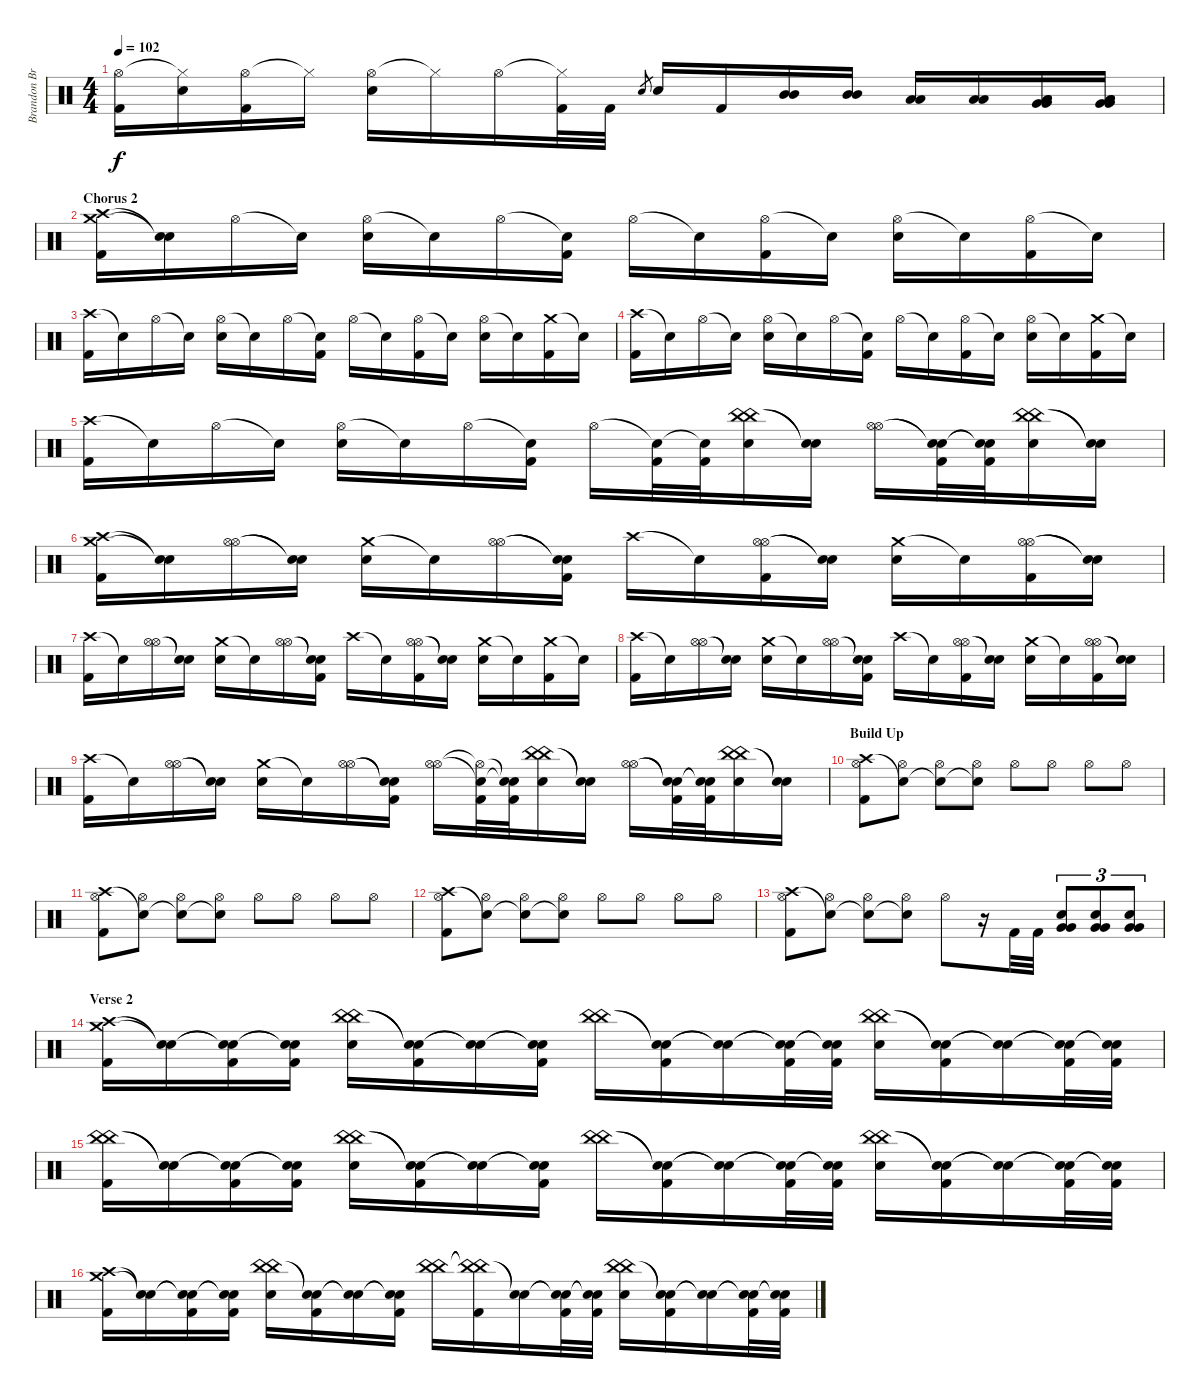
\track ("Brandon Brown (Drums)" "Brandon Br") {instrument percussion}
\staff {score}
\articulation defaults
\ts (4 4)
\tempo 102
\clef neutral
\ks c
("Hi-Hat (open)" "Kick (hit) 2").16{dy f} ("Hi-Hat (closed)"{t} "Electric Snare (hit)").16 ("Hi-Hat (open)" "Kick (hit) 2").16 "Hi-Hat (closed)"{t}.16 ("Hi-Hat (open)" "Electric Snare (hit)").16 "Hi-Hat (closed)"{t}.16 "Hi-Hat (open)".16 ("Hi-Hat (closed)"{t} "Kick (hit) 2").32 "Kick (hit) 2".32 "Electric Snare (hit)".8{gr} "Electric Snare (hit)".16 "Kick (hit) 2".16 ("Mid Tom (hit)" "Mid Tom (hit)").16 ("Mid Tom (hit)" "Mid Tom (hit)").16 ("Low Tom (hit)" "Low Tom (hit)").16 ("Low Tom (hit)" "Low Tom (hit)").16 ("Very Low Tom (hit)" "Very Low Tom (hit)" "Low Floor Tom (hit)" "Low Floor Tom (hit)").16 ("Very Low Tom (hit)" "Very Low Tom (hit)" "Low Floor Tom (hit)" "Low Floor Tom (hit)").16 |
\section ("" "Chorus 2")
("Crash high (hit)" "Crash medium (hit)" "Kick (hit) 2").16 ("Snare (hit)"{t} "Snare (hit)"{t}).16 "Hi-Hat (open)".16 "Snare (hit)"{t}.16 ("Hi-Hat (open)" "Electric Snare (hit)").16 "Snare (hit)"{t}.16 "Hi-Hat (open)".16 ("Snare (hit)"{t} "Kick (hit) 2").16 "Hi-Hat (open)".16 "Snare (hit)"{t}.16 ("Hi-Hat (open)" "Kick (hit) 2").16 "Snare (hit)"{t}.16 ("Hi-Hat (open)" "Electric Snare (hit)").16 "Snare (hit)"{t}.16 ("Hi-Hat (open)" "Kick (hit) 2").16 "Snare (hit)"{t}.16 |
("Crash high (hit)" "Kick (hit) 2").16 "Snare (hit)"{t}.16 "Hi-Hat (open)".16 "Snare (hit)"{t}.16 ("Hi-Hat (open)" "Electric Snare (hit)").16 "Snare (hit)"{t}.16 "Hi-Hat (open)".16 ("Snare (hit)"{t} "Kick (hit) 2").16 "Hi-Hat (open)".16 "Snare (hit)"{t}.16 ("Hi-Hat (open)" "Kick (hit) 2").16 "Snare (hit)"{t}.16 ("Hi-Hat (open)" "Electric Snare (hit)").16 "Snare (hit)"{t}.16 ("Crash medium (hit)" "Kick (hit) 2").16 "Snare (hit)"{t}.16 |
("Crash high (hit)" "Kick (hit) 2").16 "Snare (hit)"{t}.16 "Hi-Hat (open)".16 "Snare (hit)"{t}.16 ("Hi-Hat (open)" "Electric Snare (hit)").16 "Snare (hit)"{t}.16 "Hi-Hat (open)".16 ("Snare (hit)"{t} "Kick (hit) 2").16 "Hi-Hat (open)".16 "Snare (hit)"{t}.16 ("Hi-Hat (open)" "Kick (hit) 2").16 "Snare (hit)"{t}.16 ("Hi-Hat (open)" "Electric Snare (hit)").16 "Snare (hit)"{t}.16 ("Crash medium (hit)" "Kick (hit) 2").16 "Snare (hit)"{t}.16 |
("Crash high (hit)" "Kick (hit) 2").16 "Snare (hit)"{t}.16 "Hi-Hat (open)".16 "Snare (hit)"{t}.16 ("Hi-Hat (open)" "Electric Snare (hit)").16 "Snare (hit)"{t}.16 "Hi-Hat (open)".16 ("Snare (hit)"{t} "Kick (hit) 2").16 "Hi-Hat (open)".16 ("Snare (hit)"{t} "Kick (hit) 2").32 ("Snare (hit)"{t} "Kick (hit) 2").32 ("China (hit)" "China (hit)" "Electric Snare (hit)").16 ("Snare (hit)"{t} "Snare (hit)"{t}).16 ("Hi-Hat (open)" "Hi-Hat (open)").16 ("Snare (hit)"{t} "Snare (hit)"{t} "Kick (hit) 2").32 ("Snare (hit)"{t} "Snare (hit)"{t} "Kick (hit) 2").32 ("China (hit)" "China (hit)" "Electric Snare (hit)").16 ("Snare (hit)"{t} "Snare (hit)"{t}).16 |
("Crash high (hit)" "Crash medium (hit)" "Kick (hit) 2").16 ("Snare (hit)"{t} "Snare (hit)"{t}).16 ("Hi-Hat (open)" "Hi-Hat (open)").16 ("Snare (hit)"{t} "Snare (hit)"{t}).16 ("Crash medium (hit)" "Electric Snare (hit)").16 "Snare (hit)"{t}.16 ("Hi-Hat (open)" "Hi-Hat (open)").16 ("Snare (hit)"{t} "Snare (hit)"{t} "Kick (hit) 2").16 "Crash high (hit)".16 "Snare (hit)"{t}.16 ("Hi-Hat (open)" "Hi-Hat (open)" "Kick (hit) 2").16 ("Snare (hit)"{t} "Snare (hit)"{t}).16 ("Crash medium (hit)" "Electric Snare (hit)").16 "Snare (hit)"{t}.16 ("Hi-Hat (open)" "Hi-Hat (open)" "Kick (hit) 2").16 ("Snare (hit)"{t} "Snare (hit)"{t}).16 |
("Crash high (hit)" "Kick (hit) 2").16 "Snare (hit)"{t}.16 ("Hi-Hat (open)" "Hi-Hat (open)").16 ("Snare (hit)"{t} "Snare (hit)"{t}).16 ("Crash medium (hit)" "Electric Snare (hit)").16 "Snare (hit)"{t}.16 ("Hi-Hat (open)" "Hi-Hat (open)").16 ("Snare (hit)"{t} "Snare (hit)"{t} "Kick (hit) 2").16 "Crash high (hit)".16 "Snare (hit)"{t}.16 ("Hi-Hat (open)" "Hi-Hat (open)" "Kick (hit) 2").16 ("Snare (hit)"{t} "Snare (hit)"{t}).16 ("Crash medium (hit)" "Electric Snare (hit)").16 "Snare (hit)"{t}.16 ("Crash medium (hit)" "Kick (hit) 2").16 "Snare (hit)"{t}.16 |
("Crash high (hit)" "Kick (hit) 2").16 "Snare (hit)"{t}.16 ("Hi-Hat (open)" "Hi-Hat (open)").16 ("Snare (hit)"{t} "Snare (hit)"{t}).16 ("Crash medium (hit)" "Electric Snare (hit)").16 "Snare (hit)"{t}.16 ("Hi-Hat (open)" "Hi-Hat (open)").16 ("Snare (hit)"{t} "Snare (hit)"{t} "Kick (hit) 2").16 "Crash high (hit)".16 "Snare (hit)"{t}.16 ("Hi-Hat (open)" "Hi-Hat (open)" "Kick (hit) 2").16 ("Snare (hit)"{t} "Snare (hit)"{t}).16 ("Crash medium (hit)" "Electric Snare (hit)").16 "Snare (hit)"{t}.16 ("Hi-Hat (open)" "Hi-Hat (open)" "Kick (hit) 2").16 ("Snare (hit)"{t} "Snare (hit)"{t}).16 |
("Crash high (hit)" "Kick (hit) 2").16 "Snare (hit)"{t}.16 ("Hi-Hat (open)" "Hi-Hat (open)").16 ("Snare (hit)"{t} "Snare (hit)"{t}).16 ("Crash medium (hit)" "Electric Snare (hit)").16 "Snare (hit)"{t}.16 ("Hi-Hat (open)" "Hi-Hat (open)").16 ("Snare (hit)"{t} "Snare (hit)"{t} "Kick (hit) 2").16 ("Hi-Hat (open)" "Hi-Hat (open)").16 ("Hi-Hat (open)"{t} "Snare (hit)"{t} "Kick (hit) 2").32 ("Snare (hit)"{t} "Snare (hit)"{t} "Kick (hit) 2").32 ("China (hit)" "China (hit)" "Electric Snare (hit)").16 ("Snare (hit)"{t} "Snare (hit)"{t}).16 ("Hi-Hat (open)" "Hi-Hat (open)").16 ("Snare (hit)"{t} "Snare (hit)"{t} "Kick (hit) 2").32 ("Snare (hit)"{t} "Snare (hit)"{t} "Kick (hit) 2").32 ("China (hit)" "China (hit)" "Electric Snare (hit)").16 ("Snare (hit)"{t} "Snare (hit)"{t}).16 |
\section ("" "Build Up")
("Hi-Hat (open)" "Crash high (hit)" "Kick (hit) 2").8 ("Hi-Hat (open)" "Snare (hit)"{t}).8 ("Hi-Hat (open)" "Snare (hit)"{t}).8 ("Hi-Hat (open)" "Snare (hit)"{t}).8 "Hi-Hat (open)".8 "Hi-Hat (open)".8 "Hi-Hat (open)".8 "Hi-Hat (open)".8 |
("Hi-Hat (open)" "Crash high (hit)" "Kick (hit) 2").8 ("Hi-Hat (open)" "Snare (hit)"{t}).8 ("Hi-Hat (open)" "Snare (hit)"{t}).8 ("Hi-Hat (open)" "Snare (hit)"{t}).8 "Hi-Hat (open)".8 "Hi-Hat (open)".8 "Hi-Hat (open)".8 "Hi-Hat (open)".8 |
("Hi-Hat (open)" "Crash high (hit)" "Kick (hit) 2").8 ("Hi-Hat (open)" "Snare (hit)"{t}).8 ("Hi-Hat (open)" "Snare (hit)"{t}).8 ("Hi-Hat (open)" "Snare (hit)"{t}).8 "Hi-Hat (open)".8 "Hi-Hat (open)".8 "Hi-Hat (open)".8 "Hi-Hat (open)".8 |
("Hi-Hat (open)" "Crash high (hit)" "Kick (hit) 2").8 ("Hi-Hat (open)" "Snare (hit)"{t}).8 ("Hi-Hat (open)" "Snare (hit)"{t}).8 ("Hi-Hat (open)" "Snare (hit)"{t}).8 "Hi-Hat (open)".8 r.16 "Kick (hit) 2".32 "Kick (hit) 2".32 ("Electric Snare (hit)" "Very Low Tom (hit)" "Very Low Tom (hit)").8{tu (3 2)} ("Electric Snare (hit)" "Very Low Tom (hit)" "Very Low Tom (hit)").8{tu (3 2)} ("Electric Snare (hit)" "Very Low Tom (hit)" "Very Low Tom (hit)").8{tu (3 2)} |
\section ("" "Verse 2")
("Crash high (hit)" "Crash medium (hit)" "Kick (hit) 2").16 ("Snare (hit)"{t} "Snare (hit)"{t}).16 ("Snare (hit)"{t} "Snare (hit)"{t} "Kick (hit) 2").16 ("Snare (hit)"{t} "Snare (hit)"{t} "Kick (hit) 2").16 ("China (hit)" "China (hit)" "Electric Snare (hit)").16 ("Snare (hit)"{t} "Snare (hit)"{t} "Kick (hit) 2").16 ("Snare (hit)"{t} "Snare (hit)"{t}).16 ("Snare (hit)"{t} "Snare (hit)"{t} "Kick (hit) 2").16 ("China (hit)" "China (hit)").16 ("Snare (hit)"{t} "Snare (hit)"{t} "Kick (hit) 2").16 ("Snare (hit)"{t} "Snare (hit)"{t}).16 ("Snare (hit)"{t} "Snare (hit)"{t} "Kick (hit) 2").32 ("Snare (hit)"{t} "Snare (hit)"{t} "Kick (hit) 2").32 ("China (hit)" "China (hit)" "Electric Snare (hit)").16 ("Snare (hit)"{t} "Snare (hit)"{t} "Kick (hit) 2").16 ("Snare (hit)"{t} "Snare (hit)"{t}).16 ("Snare (hit)"{t} "Snare (hit)"{t} "Kick (hit) 2").32 ("Snare (hit)"{t} "Snare (hit)"{t} "Kick (hit) 2").32 |
("China (hit)" "China (hit)" "Kick (hit) 2").16 ("Snare (hit)"{t} "Snare (hit)"{t}).16 ("Snare (hit)"{t} "Snare (hit)"{t} "Kick (hit) 2").16 ("Snare (hit)"{t} "Snare (hit)"{t} "Kick (hit) 2").16 ("China (hit)" "China (hit)" "Electric Snare (hit)").16 ("Snare (hit)"{t} "Snare (hit)"{t} "Kick (hit) 2").16 ("Snare (hit)"{t} "Snare (hit)"{t}).16 ("Snare (hit)"{t} "Snare (hit)"{t} "Kick (hit) 2").16 ("China (hit)" "China (hit)").16 ("Snare (hit)"{t} "Snare (hit)"{t} "Kick (hit) 2").16 ("Snare (hit)"{t} "Snare (hit)"{t}).16 ("Snare (hit)"{t} "Snare (hit)"{t} "Kick (hit) 2").32 ("Snare (hit)"{t} "Snare (hit)"{t} "Kick (hit) 2").32 ("China (hit)" "China (hit)" "Electric Snare (hit)").16 ("Snare (hit)"{t} "Snare (hit)"{t} "Kick (hit) 2").16 ("Snare (hit)"{t} "Snare (hit)"{t}).16 ("Snare (hit)"{t} "Snare (hit)"{t} "Kick (hit) 2").32 ("Snare (hit)"{t} "Snare (hit)"{t} "Kick (hit) 2").32 |
("Crash high (hit)" "Crash medium (hit)" "Kick (hit) 2").16 ("Snare (hit)"{t} "Snare (hit)"{t}).16 ("Snare (hit)"{t} "Snare (hit)"{t} "Kick (hit) 2").16 ("Snare (hit)"{t} "Snare (hit)"{t} "Kick (hit) 2").16 ("China (hit)" "China (hit)" "Electric Snare (hit)").16 ("Snare (hit)"{t} "Snare (hit)"{t} "Kick (hit) 2").16 ("Snare (hit)"{t} "Snare (hit)"{t}).16 ("Snare (hit)"{t} "Snare (hit)"{t} "Kick (hit) 2").16 ("China (hit)" "China (hit)").16 ("China (hit)"{t} "China (hit)"{t} "Kick (hit) 2").16 ("Snare (hit)"{t} "Snare (hit)"{t}).16 ("Snare (hit)"{t} "Snare (hit)"{t} "Kick (hit) 2").32 ("Snare (hit)"{t} "Snare (hit)"{t} "Kick (hit) 2").32 ("China (hit)" "China (hit)" "Electric Snare (hit)").16 ("Snare (hit)"{t} "Snare (hit)"{t} "Kick (hit) 2").16 ("Snare (hit)"{t} "Snare (hit)"{t}).16 ("Snare (hit)"{t} "Snare (hit)"{t} "Kick (hit) 2").32 ("Snare (hit)"{t} "Snare (hit)"{t} "Kick (hit) 2").32
